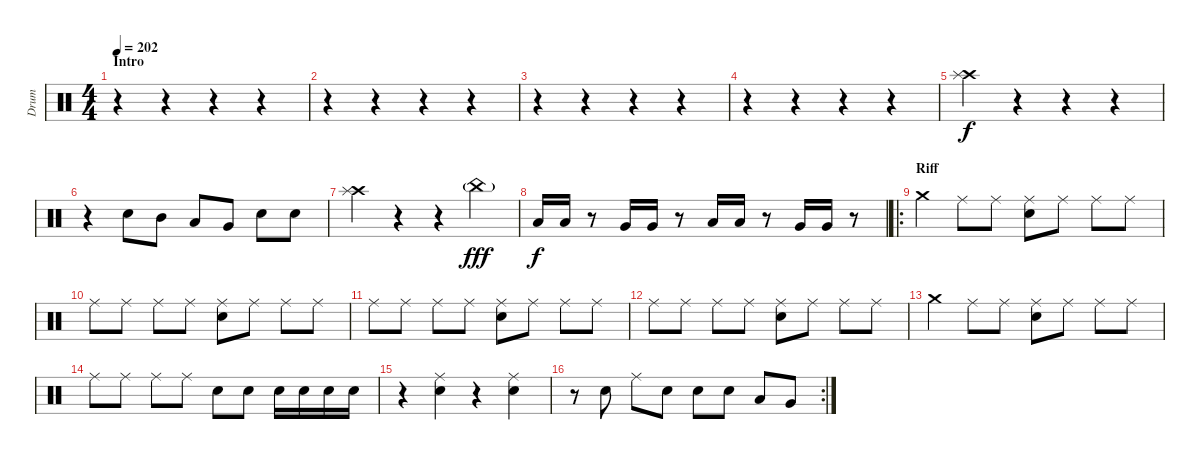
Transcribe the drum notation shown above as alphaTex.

\track ("Drum" "Drum") {instrument percussion}
\staff {score}
\articulation defaults
\ts (4 4)
\section ("" "Intro")
\tempo 202
\clef neutral
\ks c
r.4{dy f} r.4 r.4 r.4 |
r.4 r.4 r.4 r.4 |
r.4 r.4 r.4 r.4 |
r.4 r.4 r.4 r.4 |
("Crash high (hit)" "Splash (hit)").4 r.4 r.4 r.4 |
r.4 "Electric Snare (hit)".8 "Mid Tom (hit)".8 "Low Tom (hit)".8 "Very Low Tom (hit)".8 "Electric Snare (hit)".8 "Electric Snare (hit)".8 |
("Crash high (hit)" "Splash (hit)").4 r.4 r.4 "China (hit)"{g}.4{dy fff} |
"Low Tom (hit)".16{dy f} "Low Tom (hit)".16 r.8 "Very Low Tom (hit)".16 "Very Low Tom (hit)".16 r.8 "Low Floor Tom (hit)".16 "Low Floor Tom (hit)".16 r.8 "Very Low Tom (hit)".16 "Very Low Tom (hit)".16 r.8 |
\ro
\section ("" "Riff")
"Crash medium (hit)".4 "Ride (middle)".8 "Ride (middle)".8 ("Ride (middle)" "Electric Snare (hit)").8 "Ride (middle)".8 "Ride (middle)".8 "Ride (middle)".8 |
"Ride (middle)".8 "Ride (middle)".8 "Ride (middle)".8 "Ride (middle)".8 ("Ride (middle)" "Electric Snare (hit)").8 "Ride (middle)".8 "Ride (middle)".8 "Ride (middle)".8 |
"Ride (middle)".8 "Ride (middle)".8 "Ride (middle)".8 "Ride (middle)".8 ("Ride (middle)" "Electric Snare (hit)").8 "Ride (middle)".8 "Ride (middle)".8 "Ride (middle)".8 |
"Ride (middle)".8 "Ride (middle)".8 "Ride (middle)".8 "Ride (middle)".8 ("Ride (middle)" "Electric Snare (hit)").8 "Ride (middle)".8 "Ride (middle)".8 "Ride (middle)".8 |
"Crash medium (hit)".4 "Ride (middle)".8 "Ride (middle)".8 ("Ride (middle)" "Electric Snare (hit)").8 "Ride (middle)".8 "Ride (middle)".8 "Ride (middle)".8 |
"Ride (middle)".8 "Ride (middle)".8 "Ride (middle)".8 "Ride (middle)".8 "Electric Snare (hit)".8 "Electric Snare (hit)".8 "Electric Snare (hit)".16 "Electric Snare (hit)".16 "Electric Snare (hit)".16 "Electric Snare (hit)".16 |
r.4 ("Ride (middle)" "Electric Snare (hit)").4 r.4 ("Ride (middle)" "Electric Snare (hit)").4 |
\rc 2
r.8 "Electric Snare (hit)".8 "Ride (middle)".8 "Electric Snare (hit)".8 "Electric Snare (hit)".8 "Electric Snare (hit)".8 "Low Tom (hit)".8 "Very Low Tom (hit)".8
